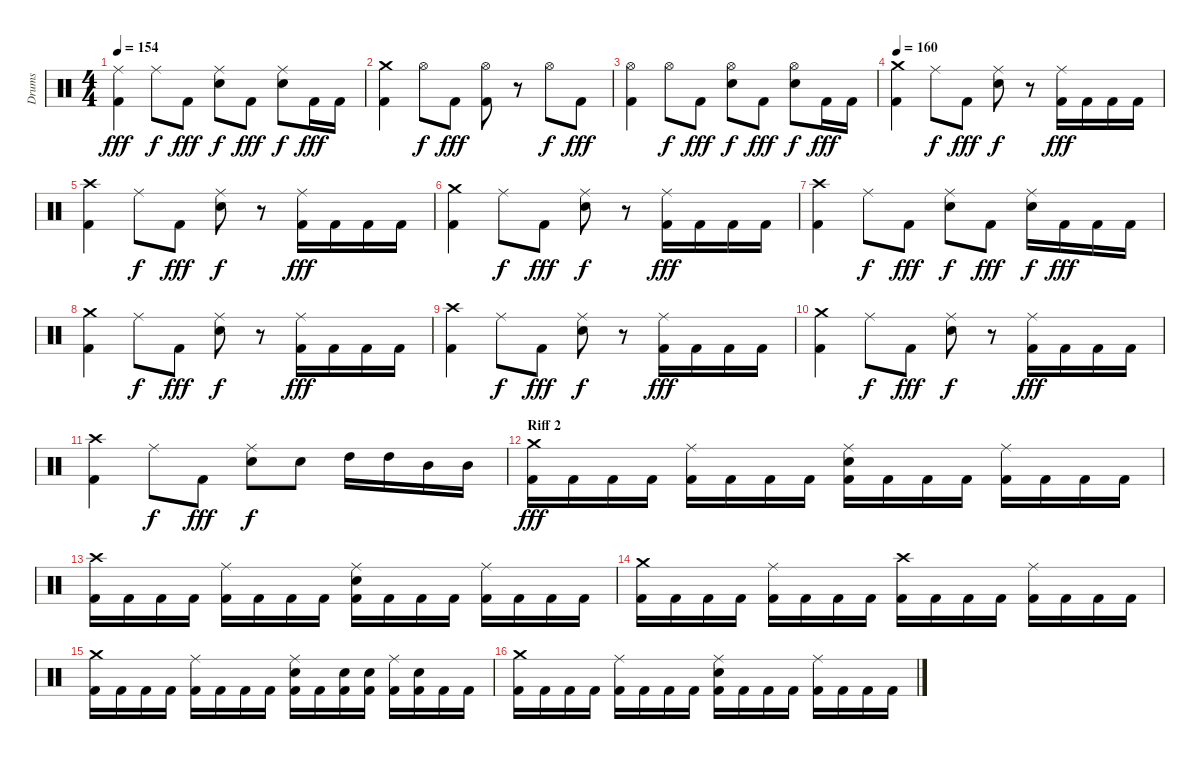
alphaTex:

\track ("Drums" "Drums") {instrument percussion}
\staff {score}
\articulation defaults
\ts (4 4)
\tempo 154
\clef neutral
\ks c
("Ride (middle)" "Kick (hit) 2").4{dy fff} "Ride (middle)".8{dy f} "Kick (hit) 2".8{dy fff} ("Ride (middle)" "Electric Snare (hit)").8{dy f} "Kick (hit) 2".8{dy fff} ("Ride (middle)" "Electric Snare (hit)").8{dy f} "Kick (hit) 2".16{dy fff} "Kick (hit) 2".16 |
("Crash medium (hit)" "Kick (hit) 2").4 "Hi-Hat (open)".8{dy f} "Kick (hit) 2".8{dy fff} ("Hi-Hat (open)" "Kick (hit) 2").8 r.8 "Hi-Hat (open)".8{dy f} "Kick (hit) 2".8{dy fff} |
("Hi-Hat (open)" "Kick (hit) 2").4 "Hi-Hat (open)".8{dy f} "Kick (hit) 2".8{dy fff} ("Hi-Hat (open)" "Electric Snare (hit)").8{dy f} "Kick (hit) 2".8{dy fff} ("Hi-Hat (open)" "Electric Snare (hit)").8{dy f} "Kick (hit) 2".16{dy fff} "Kick (hit) 2".16 |
\tempo 160
("Crash medium (hit)" "Kick (hit) 2").4 "Ride (middle)".8{dy f} "Kick (hit) 2".8{dy fff} ("Ride (middle)" "Electric Snare (hit)").8{dy f} r.8 ("Ride (middle)" "Kick (hit) 2").16{dy fff} "Kick (hit) 2".16 "Kick (hit) 2".16 "Kick (hit) 2".16 |
("Crash high (hit)" "Kick (hit) 2").4 "Ride (middle)".8{dy f} "Kick (hit) 2".8{dy fff} ("Ride (middle)" "Electric Snare (hit)").8{dy f} r.8 ("Ride (middle)" "Kick (hit) 2").16{dy fff} "Kick (hit) 2".16 "Kick (hit) 2".16 "Kick (hit) 2".16 |
("Crash medium (hit)" "Kick (hit) 2").4 "Ride (middle)".8{dy f} "Kick (hit) 2".8{dy fff} ("Ride (middle)" "Electric Snare (hit)").8{dy f} r.8 ("Ride (middle)" "Kick (hit) 2").16{dy fff} "Kick (hit) 2".16 "Kick (hit) 2".16 "Kick (hit) 2".16 |
("Crash high (hit)" "Kick (hit) 2").4 "Ride (middle)".8{dy f} "Kick (hit) 2".8{dy fff} ("Ride (middle)" "Electric Snare (hit)").8{dy f} "Kick (hit) 2".8{dy fff} ("Ride (middle)" "Electric Snare (hit)").16{dy f} "Kick (hit) 2".16{dy fff} "Kick (hit) 2".16 "Kick (hit) 2".16 |
("Crash medium (hit)" "Kick (hit) 2").4 "Ride (middle)".8{dy f} "Kick (hit) 2".8{dy fff} ("Ride (middle)" "Electric Snare (hit)").8{dy f} r.8 ("Ride (middle)" "Kick (hit) 2").16{dy fff} "Kick (hit) 2".16 "Kick (hit) 2".16 "Kick (hit) 2".16 |
("Crash high (hit)" "Kick (hit) 2").4 "Ride (middle)".8{dy f} "Kick (hit) 2".8{dy fff} ("Ride (middle)" "Electric Snare (hit)").8{dy f} r.8 ("Ride (middle)" "Kick (hit) 2").16{dy fff} "Kick (hit) 2".16 "Kick (hit) 2".16 "Kick (hit) 2".16 |
("Crash medium (hit)" "Kick (hit) 2").4 "Ride (middle)".8{dy f} "Kick (hit) 2".8{dy fff} ("Ride (middle)" "Electric Snare (hit)").8{dy f} r.8 ("Ride (middle)" "Kick (hit) 2").16{dy fff} "Kick (hit) 2".16 "Kick (hit) 2".16 "Kick (hit) 2".16 |
("Crash high (hit)" "Kick (hit) 2").4 "Ride (middle)".8{dy f} "Kick (hit) 2".8{dy fff} ("Ride (middle)" "Electric Snare (hit)").8{dy f} "Electric Snare (hit)".8 "High Tom (hit)".16 "High Tom (hit)".16 "Mid Tom (hit)".16 "Mid Tom (hit)".16 |
\section ("" "Riff 2")
("Crash medium (hit)" "Kick (hit) 2").16{dy fff} "Kick (hit) 2".16 "Kick (hit) 2".16 "Kick (hit) 2".16 ("Ride (middle)" "Kick (hit) 2").16 "Kick (hit) 2".16 "Kick (hit) 2".16 "Kick (hit) 2".16 ("Ride (middle)" "Electric Snare (hit)" "Kick (hit) 2").16 "Kick (hit) 2".16 "Kick (hit) 2".16 "Kick (hit) 2".16 ("Ride (middle)" "Kick (hit) 2").16 "Kick (hit) 2".16 "Kick (hit) 2".16 "Kick (hit) 2".16 |
("Crash high (hit)" "Kick (hit) 2").16 "Kick (hit) 2".16 "Kick (hit) 2".16 "Kick (hit) 2".16 ("Ride (middle)" "Kick (hit) 2").16 "Kick (hit) 2".16 "Kick (hit) 2".16 "Kick (hit) 2".16 ("Ride (middle)" "Electric Snare (hit)" "Kick (hit) 2").16 "Kick (hit) 2".16 "Kick (hit) 2".16 "Kick (hit) 2".16 ("Ride (middle)" "Kick (hit) 2").16 "Kick (hit) 2".16 "Kick (hit) 2".16 "Kick (hit) 2".16 |
("Crash medium (hit)" "Kick (hit) 2").16 "Kick (hit) 2".16 "Kick (hit) 2".16 "Kick (hit) 2".16 ("Ride (middle)" "Kick (hit) 2").16 "Kick (hit) 2".16 "Kick (hit) 2".16 "Kick (hit) 2".16 ("Crash high (hit)" "Kick (hit) 2").16 "Kick (hit) 2".16 "Kick (hit) 2".16 "Kick (hit) 2".16 ("Ride (middle)" "Kick (hit) 2").16 "Kick (hit) 2".16 "Kick (hit) 2".16 "Kick (hit) 2".16 |
("Crash medium (hit)" "Kick (hit) 2").16 "Kick (hit) 2".16 "Kick (hit) 2".16 "Kick (hit) 2".16 ("Ride (middle)" "Kick (hit) 2").16 "Kick (hit) 2".16 "Kick (hit) 2".16 "Kick (hit) 2".16 ("Ride (middle)" "Electric Snare (hit)" "Kick (hit) 2").16 "Kick (hit) 2".16 ("Electric Snare (hit)" "Kick (hit) 2").16 ("Electric Snare (hit)" "Kick (hit) 2").16 ("Ride (middle)" "Kick (hit) 2").16 ("Electric Snare (hit)" "Kick (hit) 2").16 "Kick (hit) 2".16 "Kick (hit) 2".16 |
("Crash medium (hit)" "Kick (hit) 2").16 "Kick (hit) 2".16 "Kick (hit) 2".16 "Kick (hit) 2".16 ("Ride (middle)" "Kick (hit) 2").16 "Kick (hit) 2".16 "Kick (hit) 2".16 "Kick (hit) 2".16 ("Ride (middle)" "Electric Snare (hit)" "Kick (hit) 2").16 "Kick (hit) 2".16 "Kick (hit) 2".16 "Kick (hit) 2".16 ("Ride (middle)" "Kick (hit) 2").16 "Kick (hit) 2".16 "Kick (hit) 2".16 "Kick (hit) 2".16
